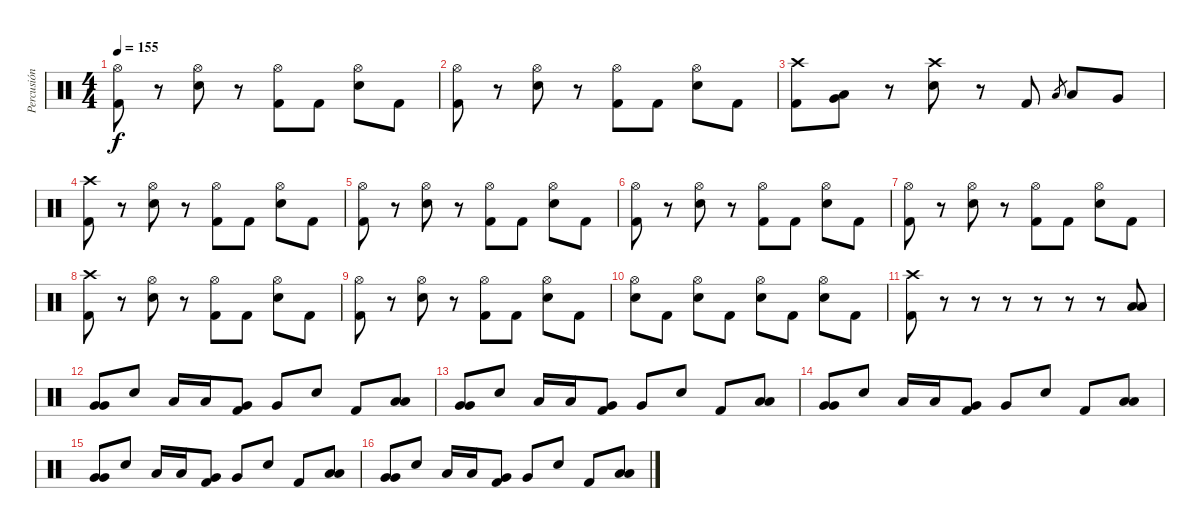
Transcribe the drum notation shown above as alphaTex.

\track ("Percusión" "Percusión") {instrument percussion}
\staff {score}
\articulation defaults
\ts (4 4)
\tempo 155
\clef neutral
\ks c
("Hi-Hat (open)" "Kick (hit) 2").8{dy f} r.8 ("Hi-Hat (open)" "Electric Snare (hit)").8 r.8 ("Hi-Hat (open)" "Kick (hit) 2").8 "Kick (hit) 2".8 ("Hi-Hat (open)" "Electric Snare (hit)").8 "Kick (hit) 2".8 |
("Hi-Hat (open)" "Kick (hit) 2").8 r.8 ("Hi-Hat (open)" "Electric Snare (hit)").8 r.8 ("Hi-Hat (open)" "Kick (hit) 2").8 "Kick (hit) 2".8 ("Hi-Hat (open)" "Electric Snare (hit)").8 "Kick (hit) 2".8 |
("Crash high (hit)" "Kick (hit) 2").8 ("Very Low Tom (hit)" "Low Tom (hit)").8 r.8 ("Crash high (hit)" "Electric Snare (hit)").8 r.8 "Kick (hit) 2".8 "Low Tom (hit)".8{gr} "Low Tom (hit)".8 "Very Low Tom (hit)".8 |
("Crash high (hit)" "Kick (hit) 2").8 r.8 ("Hi-Hat (open)" "Electric Snare (hit)").8 r.8 ("Hi-Hat (open)" "Kick (hit) 2").8 "Kick (hit) 2".8 ("Hi-Hat (open)" "Electric Snare (hit)").8 "Kick (hit) 2".8 |
("Hi-Hat (open)" "Kick (hit) 2").8 r.8 ("Hi-Hat (open)" "Electric Snare (hit)").8 r.8 ("Hi-Hat (open)" "Kick (hit) 2").8 "Kick (hit) 2".8 ("Hi-Hat (open)" "Electric Snare (hit)").8 "Kick (hit) 2".8 |
("Hi-Hat (open)" "Kick (hit) 2").8 r.8 ("Hi-Hat (open)" "Electric Snare (hit)").8 r.8 ("Hi-Hat (open)" "Kick (hit) 2").8 "Kick (hit) 2".8 ("Hi-Hat (open)" "Electric Snare (hit)").8 "Kick (hit) 2".8 |
("Hi-Hat (open)" "Kick (hit) 2").8 r.8 ("Hi-Hat (open)" "Electric Snare (hit)").8 r.8 ("Hi-Hat (open)" "Kick (hit) 2").8 "Kick (hit) 2".8 ("Hi-Hat (open)" "Electric Snare (hit)").8 "Kick (hit) 2".8 |
("Crash high (hit)" "Kick (hit) 2").8 r.8 ("Hi-Hat (open)" "Electric Snare (hit)").8 r.8 ("Hi-Hat (open)" "Kick (hit) 2").8 "Kick (hit) 2".8 ("Hi-Hat (open)" "Electric Snare (hit)").8 "Kick (hit) 2".8 |
("Hi-Hat (open)" "Kick (hit) 2").8 r.8 ("Hi-Hat (open)" "Electric Snare (hit)").8 r.8 ("Hi-Hat (open)" "Kick (hit) 2").8 "Kick (hit) 2".8 ("Hi-Hat (open)" "Electric Snare (hit)").8 "Kick (hit) 2".8 |
("Hi-Hat (open)" "Electric Snare (hit)").8 "Kick (hit) 2".8 ("Hi-Hat (open)" "Electric Snare (hit)").8 "Kick (hit) 2".8 ("Hi-Hat (open)" "Electric Snare (hit)").8 "Kick (hit) 2".8 ("Hi-Hat (open)" "Electric Snare (hit)").8 "Kick (hit) 2".8 |
("Crash high (hit)" "Kick (hit) 2").8 r.8 r.8 r.8 r.8 r.8 r.8 ("Low Tom (hit)" "Low Tom (hit)").8 |
("Very Low Tom (hit)" "Very Low Tom (hit)").8 "Electric Snare (hit)".8 "Low Floor Tom (hit)".16 "Low Floor Tom (hit)".16 ("Very Low Tom (hit)" "Kick (hit) 2").8 "Very Low Tom (hit)".8 "Electric Snare (hit)".8 "Kick (hit) 2".8 ("Low Tom (hit)" "Low Tom (hit)").8 |
("Very Low Tom (hit)" "Very Low Tom (hit)").8 "Electric Snare (hit)".8 "Low Floor Tom (hit)".16 "Low Floor Tom (hit)".16 ("Very Low Tom (hit)" "Kick (hit) 2").8 "Very Low Tom (hit)".8 "Electric Snare (hit)".8 "Kick (hit) 2".8 ("Low Tom (hit)" "Low Tom (hit)").8 |
("Very Low Tom (hit)" "Very Low Tom (hit)").8 "Electric Snare (hit)".8 "Low Floor Tom (hit)".16 "Low Floor Tom (hit)".16 ("Very Low Tom (hit)" "Kick (hit) 2").8 "Very Low Tom (hit)".8 "Electric Snare (hit)".8 "Kick (hit) 2".8 ("Low Tom (hit)" "Low Tom (hit)").8 |
("Very Low Tom (hit)" "Very Low Tom (hit)").8 "Electric Snare (hit)".8 "Low Floor Tom (hit)".16 "Low Floor Tom (hit)".16 ("Very Low Tom (hit)" "Kick (hit) 2").8 "Very Low Tom (hit)".8 "Electric Snare (hit)".8 "Kick (hit) 2".8 ("Low Tom (hit)" "Low Tom (hit)").8 |
("Very Low Tom (hit)" "Very Low Tom (hit)").8 "Electric Snare (hit)".8 "Low Floor Tom (hit)".16 "Low Floor Tom (hit)".16 ("Very Low Tom (hit)" "Kick (hit) 2").8 "Very Low Tom (hit)".8 "Electric Snare (hit)".8 "Kick (hit) 2".8 ("Low Tom (hit)" "Low Tom (hit)").8
